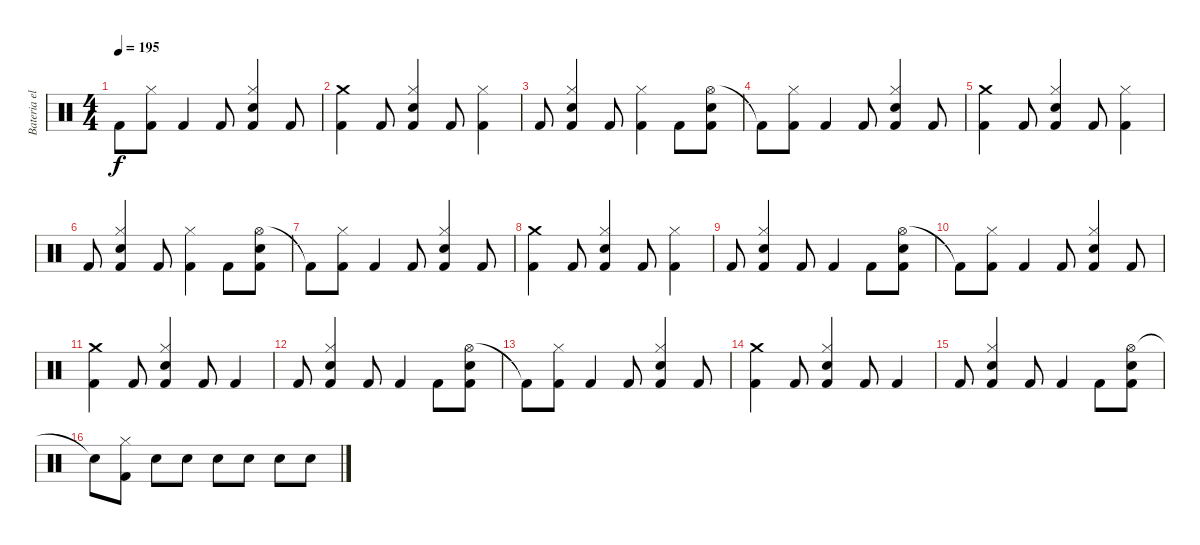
\track ("Bateria electrica" "Bateria el") {instrument percussion}
\staff {score}
\articulation defaults
\ts (4 4)
\tempo 195
\clef neutral
\ks c "Kick (hit) 2"{t}.8{dy f}
("Hi-Hat (closed)" "Kick (hit) 2").8 "Kick (hit) 2".4 "Kick (hit) 2".8 ("Hi-Hat (closed)" "Kick (hit) 2" "Snare (hit) 2").4 "Kick (hit) 2".8 |
("Crash medium (hit)" "Kick (hit) 2").4 "Kick (hit) 2".8 ("Hi-Hat (closed)" "Kick (hit) 2" "Snare (hit) 2").4 "Kick (hit) 2".8 ("Hi-Hat (closed)" "Kick (hit) 2").4 |
"Kick (hit) 2".8 ("Hi-Hat (closed)" "Kick (hit) 2" "Snare (hit) 2").4 "Kick (hit) 2".8 ("Hi-Hat (closed)" "Kick (hit) 2").4 "Kick (hit) 2".8 ("Hi-Hat (open)" "Kick (hit) 2" "Snare (hit) 2").8 |
"Kick (hit) 2"{t}.8 ("Hi-Hat (closed)" "Kick (hit) 2").8 "Kick (hit) 2".4 "Kick (hit) 2".8 ("Hi-Hat (closed)" "Kick (hit) 2" "Snare (hit) 2").4 "Kick (hit) 2".8 |
("Crash medium (hit)" "Kick (hit) 2").4 "Kick (hit) 2".8 ("Hi-Hat (closed)" "Kick (hit) 2" "Snare (hit) 2").4 "Kick (hit) 2".8 ("Hi-Hat (closed)" "Kick (hit) 2").4 |
"Kick (hit) 2".8 ("Hi-Hat (closed)" "Kick (hit) 2" "Snare (hit) 2").4 "Kick (hit) 2".8 ("Hi-Hat (closed)" "Kick (hit) 2").4 "Kick (hit) 2".8 ("Hi-Hat (open)" "Kick (hit) 2" "Snare (hit) 2").8 |
"Kick (hit) 2"{t}.8 ("Hi-Hat (closed)" "Kick (hit) 2").8 "Kick (hit) 2".4 "Kick (hit) 2".8 ("Hi-Hat (closed)" "Kick (hit) 2" "Snare (hit) 2").4 "Kick (hit) 2".8 |
("Crash medium (hit)" "Kick (hit) 2").4 "Kick (hit) 2".8 ("Hi-Hat (closed)" "Kick (hit) 2" "Snare (hit) 2").4 "Kick (hit) 2".8 ("Hi-Hat (closed)" "Kick (hit) 2").4 |
"Kick (hit) 2".8 ("Hi-Hat (closed)" "Kick (hit) 2" "Snare (hit) 2").4 "Kick (hit) 2".8 "Kick (hit) 2".4 "Kick (hit) 2".8 ("Hi-Hat (open)" "Kick (hit) 2" "Snare (hit) 2").8 |
"Kick (hit) 2"{t}.8 ("Hi-Hat (closed)" "Kick (hit) 2").8 "Kick (hit) 2".4 "Kick (hit) 2".8 ("Hi-Hat (closed)" "Kick (hit) 2" "Snare (hit) 2").4 "Kick (hit) 2".8 |
("Crash medium (hit)" "Kick (hit) 2").4 "Kick (hit) 2".8 ("Hi-Hat (closed)" "Kick (hit) 2" "Snare (hit) 2").4 "Kick (hit) 2".8 "Kick (hit) 2".4 |
"Kick (hit) 2".8 ("Hi-Hat (closed)" "Kick (hit) 2" "Snare (hit) 2").4 "Kick (hit) 2".8 "Kick (hit) 2".4 "Kick (hit) 2".8 ("Hi-Hat (open)" "Kick (hit) 2" "Snare (hit) 2").8 |
"Kick (hit) 2"{t}.8 ("Hi-Hat (closed)" "Kick (hit) 2").8 "Kick (hit) 2".4 "Kick (hit) 2".8 ("Hi-Hat (closed)" "Kick (hit) 2" "Snare (hit) 2").4 "Kick (hit) 2".8 |
("Crash medium (hit)" "Kick (hit) 2").4 "Kick (hit) 2".8 ("Hi-Hat (closed)" "Kick (hit) 2" "Snare (hit) 2").4 "Kick (hit) 2".8 "Kick (hit) 2".4 |
"Kick (hit) 2".8 ("Hi-Hat (closed)" "Kick (hit) 2" "Snare (hit) 2").4 "Kick (hit) 2".8 "Kick (hit) 2".4 "Kick (hit) 2".8 ("Hi-Hat (open)" "Kick (hit) 2" "Snare (hit) 2").8 |
"Snare (hit) 2"{t}.8 ("Hi-Hat (closed)" "Kick (hit) 2").8 "Snare (hit) 2".8 "Snare (hit) 2".8 "Snare (hit) 2".8 "Snare (hit) 2".8 "Snare (hit) 2".8 "Snare (hit) 2".8
